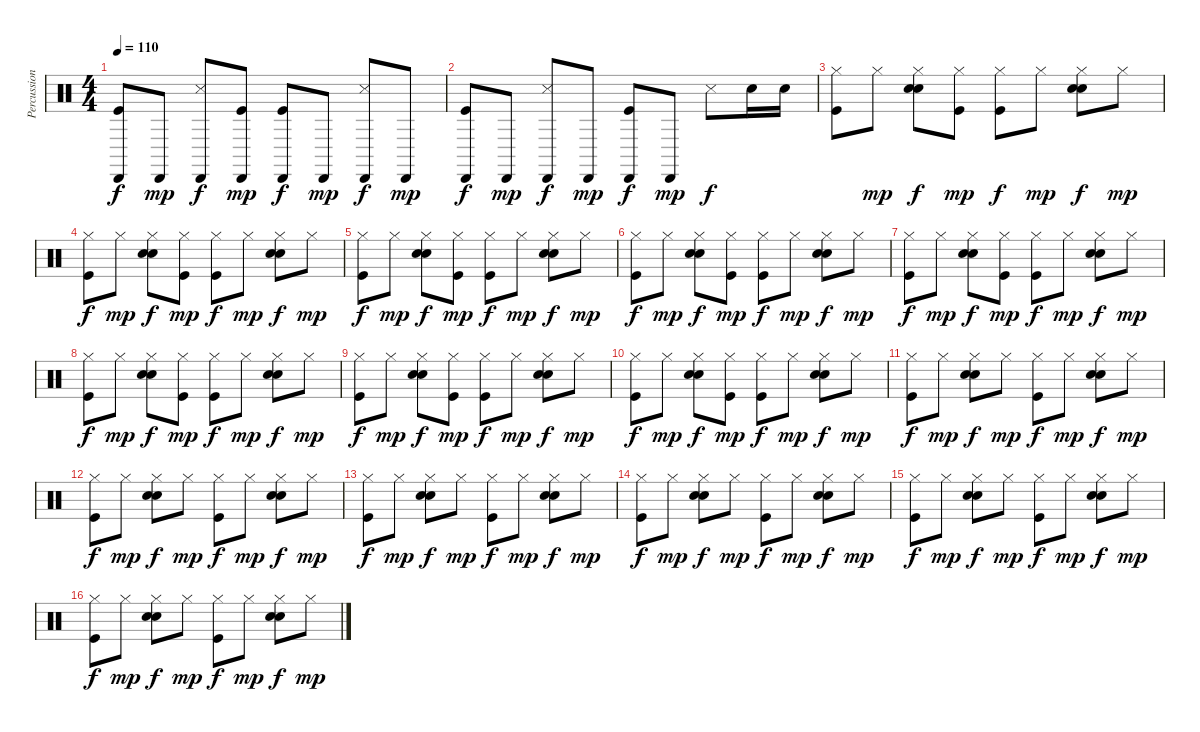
\track ("Percussions" "Percussion") {instrument percussion}
\staff {score}
\articulation defaults
\ts (4 4)
\tempo 110
\clef neutral
\ks c
("Cabasa (hit)" "Kick (hit)").8{dy f} "Cabasa (hit)".8{dy mp} ("Cabasa (hit)" "Snare (side stick) 3").8{dy f} ("Cabasa (hit)" "Kick (hit)").8{dy mp} ("Cabasa (hit)" "Kick (hit)").8{dy f} "Cabasa (hit)".8{dy mp} ("Cabasa (hit)" "Snare (side stick) 3").8{dy f} "Cabasa (hit)".8{dy mp} |
("Cabasa (hit)" "Kick (hit)").8{dy f} "Cabasa (hit)".8{dy mp} ("Cabasa (hit)" "Snare (side stick) 3").8{dy f} "Cabasa (hit)".8{dy mp} ("Cabasa (hit)" "Kick (hit)").8{dy f} "Cabasa (hit)".8{dy mp} "Snare (side stick) 3".8{dy f} "Snare (hit) 2".16 "Snare (hit) 2".16 |
("Hi-Hat (closed)" "Kick (hit)").8 "Hi-Hat (closed)".8{dy mp} ("Hi-Hat (closed)" "Snare (hit) 2" "Hand Clap (hit)").8{dy f} ("Hi-Hat (closed)" "Kick (hit)").8{dy mp} ("Hi-Hat (closed)" "Kick (hit)").8{dy f} "Hi-Hat (closed)".8{dy mp} ("Hi-Hat (closed)" "Snare (hit) 2" "Hand Clap (hit)").8{dy f} "Hi-Hat (closed)".8{dy mp} |
("Hi-Hat (closed)" "Kick (hit)").8{dy f} "Hi-Hat (closed)".8{dy mp} ("Hi-Hat (closed)" "Snare (hit) 2" "Hand Clap (hit)").8{dy f} ("Hi-Hat (closed)" "Kick (hit)").8{dy mp} ("Hi-Hat (closed)" "Kick (hit)").8{dy f} "Hi-Hat (closed)".8{dy mp} ("Hi-Hat (closed)" "Snare (hit) 2" "Hand Clap (hit)").8{dy f} "Hi-Hat (closed)".8{dy mp} |
("Hi-Hat (closed)" "Kick (hit)").8{dy f} "Hi-Hat (closed)".8{dy mp} ("Hi-Hat (closed)" "Snare (hit) 2" "Hand Clap (hit)").8{dy f} ("Hi-Hat (closed)" "Kick (hit)").8{dy mp} ("Hi-Hat (closed)" "Kick (hit)").8{dy f} "Hi-Hat (closed)".8{dy mp} ("Hi-Hat (closed)" "Snare (hit) 2" "Hand Clap (hit)").8{dy f} "Hi-Hat (closed)".8{dy mp} |
("Hi-Hat (closed)" "Kick (hit)").8{dy f} "Hi-Hat (closed)".8{dy mp} ("Hi-Hat (closed)" "Snare (hit) 2" "Hand Clap (hit)").8{dy f} ("Hi-Hat (closed)" "Kick (hit)").8{dy mp} ("Hi-Hat (closed)" "Kick (hit)").8{dy f} "Hi-Hat (closed)".8{dy mp} ("Hi-Hat (closed)" "Snare (hit) 2" "Hand Clap (hit)").8{dy f} "Hi-Hat (closed)".8{dy mp} |
("Hi-Hat (closed)" "Kick (hit)").8{dy f} "Hi-Hat (closed)".8{dy mp} ("Hi-Hat (closed)" "Snare (hit) 2" "Hand Clap (hit)").8{dy f} ("Hi-Hat (closed)" "Kick (hit)").8{dy mp} ("Hi-Hat (closed)" "Kick (hit)").8{dy f} "Hi-Hat (closed)".8{dy mp} ("Hi-Hat (closed)" "Snare (hit) 2" "Hand Clap (hit)").8{dy f} "Hi-Hat (closed)".8{dy mp} |
("Hi-Hat (closed)" "Kick (hit)").8{dy f} "Hi-Hat (closed)".8{dy mp} ("Hi-Hat (closed)" "Snare (hit) 2" "Hand Clap (hit)").8{dy f} ("Hi-Hat (closed)" "Kick (hit)").8{dy mp} ("Hi-Hat (closed)" "Kick (hit)").8{dy f} "Hi-Hat (closed)".8{dy mp} ("Hi-Hat (closed)" "Snare (hit) 2" "Hand Clap (hit)").8{dy f} "Hi-Hat (closed)".8{dy mp} |
("Hi-Hat (closed)" "Kick (hit)").8{dy f} "Hi-Hat (closed)".8{dy mp} ("Hi-Hat (closed)" "Snare (hit) 2" "Hand Clap (hit)").8{dy f} ("Hi-Hat (closed)" "Kick (hit)").8{dy mp} ("Hi-Hat (closed)" "Kick (hit)").8{dy f} "Hi-Hat (closed)".8{dy mp} ("Hi-Hat (closed)" "Snare (hit) 2" "Hand Clap (hit)").8{dy f} "Hi-Hat (closed)".8{dy mp} |
("Hi-Hat (closed)" "Kick (hit)").8{dy f} "Hi-Hat (closed)".8{dy mp} ("Hi-Hat (closed)" "Snare (hit) 2" "Hand Clap (hit)").8{dy f} ("Hi-Hat (closed)" "Kick (hit)").8{dy mp} ("Hi-Hat (closed)" "Kick (hit)").8{dy f} "Hi-Hat (closed)".8{dy mp} ("Hi-Hat (closed)" "Snare (hit) 2" "Hand Clap (hit)").8{dy f} "Hi-Hat (closed)".8{dy mp} |
("Hi-Hat (closed)" "Kick (hit)").8{dy f} "Hi-Hat (closed)".8{dy mp} ("Hi-Hat (closed)" "Snare (hit) 2" "Hand Clap (hit)").8{dy f} "Hi-Hat (closed)".8{dy mp} ("Hi-Hat (closed)" "Kick (hit)").8{dy f} "Hi-Hat (closed)".8{dy mp} ("Hi-Hat (closed)" "Snare (hit) 2" "Hand Clap (hit)").8{dy f} "Hi-Hat (closed)".8{dy mp} |
("Hi-Hat (closed)" "Kick (hit)").8{dy f} "Hi-Hat (closed)".8{dy mp} ("Hi-Hat (closed)" "Snare (hit) 2" "Hand Clap (hit)").8{dy f} "Hi-Hat (closed)".8{dy mp} ("Hi-Hat (closed)" "Kick (hit)").8{dy f} "Hi-Hat (closed)".8{dy mp} ("Hi-Hat (closed)" "Snare (hit) 2" "Hand Clap (hit)").8{dy f} "Hi-Hat (closed)".8{dy mp} |
("Hi-Hat (closed)" "Kick (hit)").8{dy f} "Hi-Hat (closed)".8{dy mp} ("Hi-Hat (closed)" "Snare (hit) 2" "Hand Clap (hit)").8{dy f} "Hi-Hat (closed)".8{dy mp} ("Hi-Hat (closed)" "Kick (hit)").8{dy f} "Hi-Hat (closed)".8{dy mp} ("Hi-Hat (closed)" "Snare (hit) 2" "Hand Clap (hit)").8{dy f} "Hi-Hat (closed)".8{dy mp} |
("Hi-Hat (closed)" "Kick (hit)").8{dy f} "Hi-Hat (closed)".8{dy mp} ("Hi-Hat (closed)" "Snare (hit) 2" "Hand Clap (hit)").8{dy f} "Hi-Hat (closed)".8{dy mp} ("Hi-Hat (closed)" "Kick (hit)").8{dy f} "Hi-Hat (closed)".8{dy mp} ("Hi-Hat (closed)" "Snare (hit) 2" "Hand Clap (hit)").8{dy f} "Hi-Hat (closed)".8{dy mp} |
("Hi-Hat (closed)" "Kick (hit)").8{dy f} "Hi-Hat (closed)".8{dy mp} ("Hi-Hat (closed)" "Snare (hit) 2" "Hand Clap (hit)").8{dy f} "Hi-Hat (closed)".8{dy mp} ("Hi-Hat (closed)" "Kick (hit)").8{dy f} "Hi-Hat (closed)".8{dy mp} ("Hi-Hat (closed)" "Snare (hit) 2" "Hand Clap (hit)").8{dy f} "Hi-Hat (closed)".8{dy mp} |
("Hi-Hat (closed)" "Kick (hit)").8{dy f} "Hi-Hat (closed)".8{dy mp} ("Hi-Hat (closed)" "Snare (hit) 2" "Hand Clap (hit)").8{dy f} "Hi-Hat (closed)".8{dy mp} ("Hi-Hat (closed)" "Kick (hit)").8{dy f} "Hi-Hat (closed)".8{dy mp} ("Hi-Hat (closed)" "Snare (hit) 2" "Hand Clap (hit)").8{dy f} "Hi-Hat (closed)".8{dy mp}
